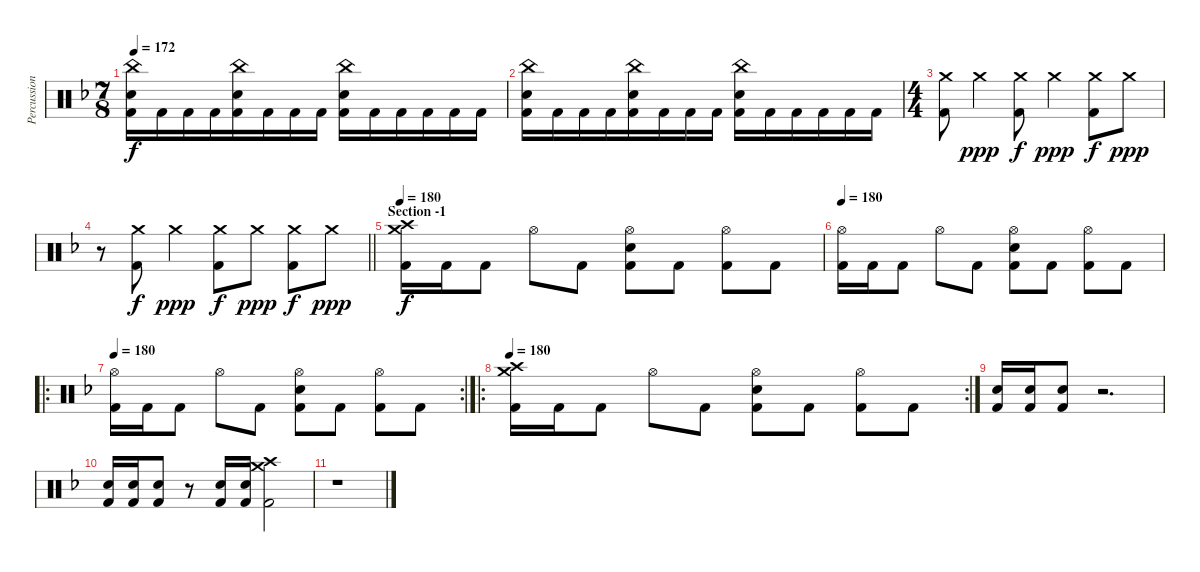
\track ("Percussion" "Percussion") {instrument percussion}
\staff {score}
\articulation defaults
\ts (7 8)
\tempo 172
\clef neutral
\ks dminor
("China (hit)" "Electric Snare (hit)" "Kick (hit) 2").16{dy f} "Kick (hit) 2".16 "Kick (hit) 2".16 "Kick (hit) 2".16 ("China (hit)" "Electric Snare (hit)" "Kick (hit) 2").16 "Kick (hit) 2".16 "Kick (hit) 2".16 "Kick (hit) 2".16 ("China (hit)" "Electric Snare (hit)" "Kick (hit) 2").16 "Kick (hit) 2".16 "Kick (hit) 2".16 "Kick (hit) 2".16 "Kick (hit) 2".16 "Kick (hit) 2".16 |
("China (hit)" "Electric Snare (hit)" "Kick (hit) 2").16 "Kick (hit) 2".16 "Kick (hit) 2".16 "Kick (hit) 2".16 ("China (hit)" "Electric Snare (hit)" "Kick (hit) 2").16 "Kick (hit) 2".16 "Kick (hit) 2".16 "Kick (hit) 2".16 ("China (hit)" "Electric Snare (hit)" "Kick (hit) 2").16 "Kick (hit) 2".16 "Kick (hit) 2".16 "Kick (hit) 2".16 "Kick (hit) 2".16 "Kick (hit) 2".16 |
\ts (4 4)
("Crash medium (hit)" "Kick (hit) 2").8 "Crash medium (hit)".4{dy ppp} ("Crash medium (hit)" "Kick (hit) 2").8{dy f} "Crash medium (hit)".4{dy ppp} ("Crash medium (hit)" "Kick (hit) 2").8{dy f} "Crash medium (hit)".8{dy ppp} |
\barLineRight lightlight
r.8 ("Crash medium (hit)" "Kick (hit) 2").8{dy f} "Crash medium (hit)".4{dy ppp} ("Crash medium (hit)" "Kick (hit) 2").8{dy f} "Crash medium (hit)".8{dy ppp} ("Crash medium (hit)" "Kick (hit) 2").8{dy f} "Crash medium (hit)".8{dy ppp} |
\section ("" "Section -1")
\tempo 180
("Crash medium (hit)" "Crash high (hit)" "Kick (hit) 2").16{dy f} "Kick (hit) 2".16 "Kick (hit) 2".8 "Hi-Hat (open)".8 "Kick (hit) 2".8 ("Hi-Hat (open)" "Electric Snare (hit)" "Kick (hit) 2").8 "Kick (hit) 2".8 ("Hi-Hat (open)" "Kick (hit) 2").8 "Kick (hit) 2".8 |
\tempo 180
("Hi-Hat (open)" "Kick (hit) 2").16 "Kick (hit) 2".16 "Kick (hit) 2".8 "Hi-Hat (open)".8 "Kick (hit) 2".8 ("Hi-Hat (open)" "Electric Snare (hit)" "Kick (hit) 2").8 "Kick (hit) 2".8 ("Hi-Hat (open)" "Kick (hit) 2").8 "Kick (hit) 2".8 |
\ro
\rc 2
\tempo 180
("Hi-Hat (open)" "Kick (hit) 2").16 "Kick (hit) 2".16 "Kick (hit) 2".8 "Hi-Hat (open)".8 "Kick (hit) 2".8 ("Hi-Hat (open)" "Electric Snare (hit)" "Kick (hit) 2").8 "Kick (hit) 2".8 ("Hi-Hat (open)" "Kick (hit) 2").8 "Kick (hit) 2".8 |
\ro
\rc 2
\tempo 180
("Crash medium (hit)" "Crash high (hit)" "Kick (hit) 2").16 "Kick (hit) 2".16 "Kick (hit) 2".8 "Hi-Hat (open)".8 "Kick (hit) 2".8 ("Hi-Hat (open)" "Electric Snare (hit)" "Kick (hit) 2").8 "Kick (hit) 2".8 ("Hi-Hat (open)" "Kick (hit) 2").8 "Kick (hit) 2".8 |
("Electric Snare (hit)" "Kick (hit) 2").16 ("Electric Snare (hit)" "Kick (hit) 2").16 ("Electric Snare (hit)" "Kick (hit) 2").8 r.2{d} |
("Electric Snare (hit)" "Kick (hit) 2").16 ("Electric Snare (hit)" "Kick (hit) 2").16 ("Electric Snare (hit)" "Kick (hit) 2").8 r.8 ("Electric Snare (hit)" "Kick (hit) 2").16 ("Electric Snare (hit)" "Kick (hit) 2").16 ("Crash high (hit)" "Crash medium (hit)" "Kick (hit) 2").2 |
r.1
